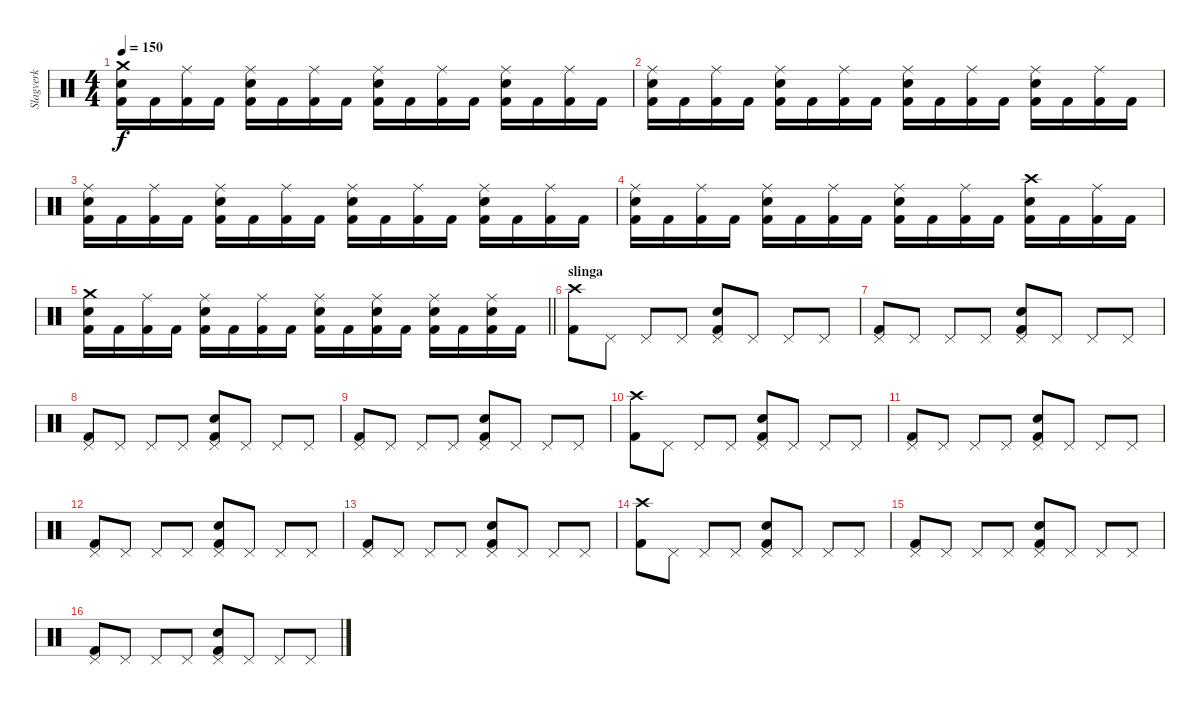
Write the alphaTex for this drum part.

\track ("Slagverk" "Slagverk") {instrument percussion}
\staff {score}
\articulation defaults
\ts (4 4)
\tempo 150
\clef neutral
\ks c
("Crash medium (hit)" "Electric Snare (hit)" "Kick (hit) 2").16{dy f} "Kick (hit) 2".16 ("Ride (middle)" "Kick (hit) 2").16 "Kick (hit) 2".16 ("Ride (middle)" "Electric Snare (hit)" "Kick (hit) 2").16 "Kick (hit) 2".16 ("Ride (middle)" "Kick (hit) 2").16 "Kick (hit) 2".16 ("Ride (middle)" "Electric Snare (hit)" "Kick (hit) 2").16 "Kick (hit) 2".16 ("Ride (middle)" "Kick (hit) 2").16 "Kick (hit) 2".16 ("Ride (middle)" "Electric Snare (hit)" "Kick (hit) 2").16 "Kick (hit) 2".16 ("Ride (middle)" "Kick (hit) 2").16 "Kick (hit) 2".16 |
("Ride (middle)" "Electric Snare (hit)" "Kick (hit) 2").16 "Kick (hit) 2".16 ("Ride (middle)" "Kick (hit) 2").16 "Kick (hit) 2".16 ("Ride (middle)" "Electric Snare (hit)" "Kick (hit) 2").16 "Kick (hit) 2".16 ("Ride (middle)" "Kick (hit) 2").16 "Kick (hit) 2".16 ("Ride (middle)" "Electric Snare (hit)" "Kick (hit) 2").16 "Kick (hit) 2".16 ("Ride (middle)" "Kick (hit) 2").16 "Kick (hit) 2".16 ("Ride (middle)" "Electric Snare (hit)" "Kick (hit) 2").16 "Kick (hit) 2".16 ("Ride (middle)" "Kick (hit) 2").16 "Kick (hit) 2".16 |
("Ride (middle)" "Electric Snare (hit)" "Kick (hit) 2").16 "Kick (hit) 2".16 ("Ride (middle)" "Kick (hit) 2").16 "Kick (hit) 2".16 ("Ride (middle)" "Electric Snare (hit)" "Kick (hit) 2").16 "Kick (hit) 2".16 ("Ride (middle)" "Kick (hit) 2").16 "Kick (hit) 2".16 ("Ride (middle)" "Electric Snare (hit)" "Kick (hit) 2").16 "Kick (hit) 2".16 ("Ride (middle)" "Kick (hit) 2").16 "Kick (hit) 2".16 ("Ride (middle)" "Electric Snare (hit)" "Kick (hit) 2").16 "Kick (hit) 2".16 ("Ride (middle)" "Kick (hit) 2").16 "Kick (hit) 2".16 |
("Ride (middle)" "Electric Snare (hit)" "Kick (hit) 2").16 "Kick (hit) 2".16 ("Ride (middle)" "Kick (hit) 2").16 "Kick (hit) 2".16 ("Ride (middle)" "Electric Snare (hit)" "Kick (hit) 2").16 "Kick (hit) 2".16 ("Ride (middle)" "Kick (hit) 2").16 "Kick (hit) 2".16 ("Ride (middle)" "Electric Snare (hit)" "Kick (hit) 2").16 "Kick (hit) 2".16 ("Ride (middle)" "Kick (hit) 2").16 "Kick (hit) 2".16 ("Crash high (hit)" "Electric Snare (hit)" "Kick (hit) 2").16 "Kick (hit) 2".16 ("Ride (middle)" "Kick (hit) 2").16 "Kick (hit) 2".16 |
\barLineRight lightlight
("Crash medium (hit)" "Electric Snare (hit)" "Kick (hit) 2").16 "Kick (hit) 2".16 ("Ride (middle)" "Kick (hit) 2").16 "Kick (hit) 2".16 ("Ride (middle)" "Electric Snare (hit)" "Kick (hit) 2").16 "Kick (hit) 2".16 ("Ride (middle)" "Kick (hit) 2").16 "Kick (hit) 2".16 ("Ride (middle)" "Electric Snare (hit)" "Kick (hit) 2").16 "Kick (hit) 2".16 ("Ride (middle)" "Electric Snare (hit)" "Kick (hit) 2").16 "Kick (hit) 2".16 ("Ride (middle)" "Electric Snare (hit)" "Kick (hit) 2").16 "Kick (hit) 2".16 ("Ride (middle)" "Electric Snare (hit)" "Kick (hit) 2").16 "Kick (hit) 2".16 |
\section ("" "slinga")
("Crash high (hit)" "Kick (hit) 2").8 "Pedal Hi-Hat (hit)".8 "Pedal Hi-Hat (hit)".8 "Pedal Hi-Hat (hit)".8 ("Pedal Hi-Hat (hit)" "Electric Snare (hit)" "Kick (hit) 2").8 "Pedal Hi-Hat (hit)".8 "Pedal Hi-Hat (hit)".8 "Pedal Hi-Hat (hit)".8 |
("Pedal Hi-Hat (hit)" "Kick (hit) 2").8 "Pedal Hi-Hat (hit)".8 "Pedal Hi-Hat (hit)".8 "Pedal Hi-Hat (hit)".8 ("Pedal Hi-Hat (hit)" "Electric Snare (hit)" "Kick (hit) 2").8 "Pedal Hi-Hat (hit)".8 "Pedal Hi-Hat (hit)".8 "Pedal Hi-Hat (hit)".8 |
("Pedal Hi-Hat (hit)" "Kick (hit) 2").8 "Pedal Hi-Hat (hit)".8 "Pedal Hi-Hat (hit)".8 "Pedal Hi-Hat (hit)".8 ("Pedal Hi-Hat (hit)" "Electric Snare (hit)" "Kick (hit) 2").8 "Pedal Hi-Hat (hit)".8 "Pedal Hi-Hat (hit)".8 "Pedal Hi-Hat (hit)".8 |
("Pedal Hi-Hat (hit)" "Kick (hit) 2").8 "Pedal Hi-Hat (hit)".8 "Pedal Hi-Hat (hit)".8 "Pedal Hi-Hat (hit)".8 ("Pedal Hi-Hat (hit)" "Electric Snare (hit)" "Kick (hit) 2").8 "Pedal Hi-Hat (hit)".8 "Pedal Hi-Hat (hit)".8 "Pedal Hi-Hat (hit)".8 |
("Crash high (hit)" "Kick (hit) 2").8 "Pedal Hi-Hat (hit)".8 "Pedal Hi-Hat (hit)".8 "Pedal Hi-Hat (hit)".8 ("Pedal Hi-Hat (hit)" "Electric Snare (hit)" "Kick (hit) 2").8 "Pedal Hi-Hat (hit)".8 "Pedal Hi-Hat (hit)".8 "Pedal Hi-Hat (hit)".8 |
("Pedal Hi-Hat (hit)" "Kick (hit) 2").8 "Pedal Hi-Hat (hit)".8 "Pedal Hi-Hat (hit)".8 "Pedal Hi-Hat (hit)".8 ("Pedal Hi-Hat (hit)" "Electric Snare (hit)" "Kick (hit) 2").8 "Pedal Hi-Hat (hit)".8 "Pedal Hi-Hat (hit)".8 "Pedal Hi-Hat (hit)".8 |
("Pedal Hi-Hat (hit)" "Kick (hit) 2").8 "Pedal Hi-Hat (hit)".8 "Pedal Hi-Hat (hit)".8 "Pedal Hi-Hat (hit)".8 ("Pedal Hi-Hat (hit)" "Electric Snare (hit)" "Kick (hit) 2").8 "Pedal Hi-Hat (hit)".8 "Pedal Hi-Hat (hit)".8 "Pedal Hi-Hat (hit)".8 |
("Pedal Hi-Hat (hit)" "Kick (hit) 2").8 "Pedal Hi-Hat (hit)".8 "Pedal Hi-Hat (hit)".8 "Pedal Hi-Hat (hit)".8 ("Pedal Hi-Hat (hit)" "Electric Snare (hit)" "Kick (hit) 2").8 "Pedal Hi-Hat (hit)".8 "Pedal Hi-Hat (hit)".8 "Pedal Hi-Hat (hit)".8 |
("Crash high (hit)" "Kick (hit) 2").8 "Pedal Hi-Hat (hit)".8 "Pedal Hi-Hat (hit)".8 "Pedal Hi-Hat (hit)".8 ("Pedal Hi-Hat (hit)" "Electric Snare (hit)" "Kick (hit) 2").8 "Pedal Hi-Hat (hit)".8 "Pedal Hi-Hat (hit)".8 "Pedal Hi-Hat (hit)".8 |
("Pedal Hi-Hat (hit)" "Kick (hit) 2").8 "Pedal Hi-Hat (hit)".8 "Pedal Hi-Hat (hit)".8 "Pedal Hi-Hat (hit)".8 ("Pedal Hi-Hat (hit)" "Electric Snare (hit)" "Kick (hit) 2").8 "Pedal Hi-Hat (hit)".8 "Pedal Hi-Hat (hit)".8 "Pedal Hi-Hat (hit)".8 |
("Pedal Hi-Hat (hit)" "Kick (hit) 2").8 "Pedal Hi-Hat (hit)".8 "Pedal Hi-Hat (hit)".8 "Pedal Hi-Hat (hit)".8 ("Pedal Hi-Hat (hit)" "Electric Snare (hit)" "Kick (hit) 2").8 "Pedal Hi-Hat (hit)".8 "Pedal Hi-Hat (hit)".8 "Pedal Hi-Hat (hit)".8
